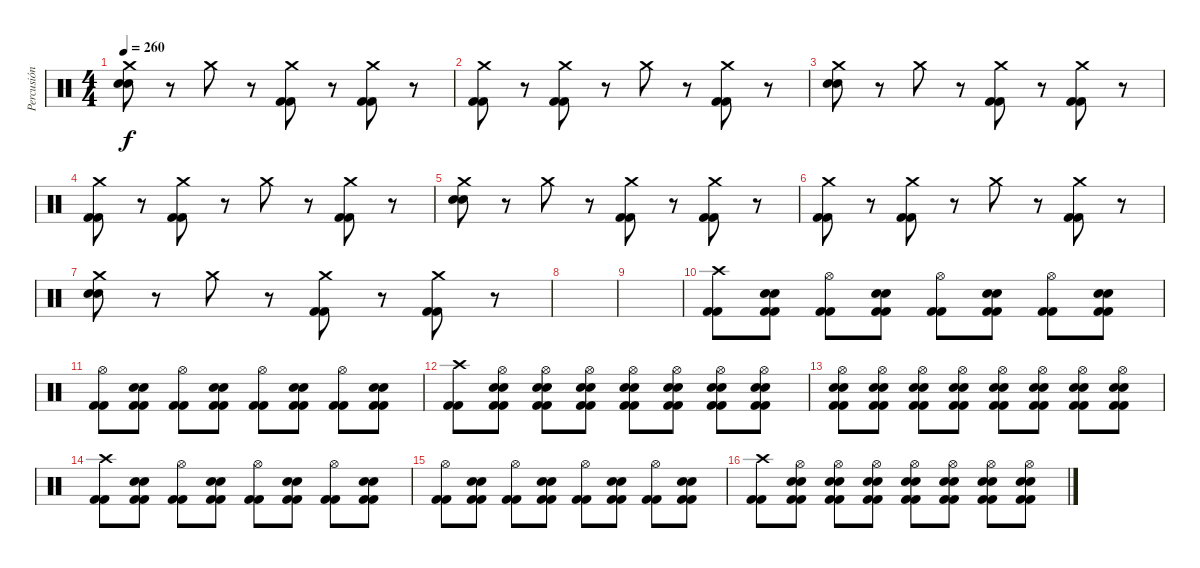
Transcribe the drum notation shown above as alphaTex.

\track ("Percusión" "Percusión") {instrument percussion}
\staff {score}
\articulation defaults
\ts (4 4)
\tempo 260
\clef neutral
\ks c
("Electric Snare (hit)" "Electric Snare (hit)" "Crash medium (hit)").8{dy f} r.8 "Crash medium (hit)".8 r.8 ("Kick (hit) 2" "Kick (hit) 2" "Crash medium (hit)").8 r.8 ("Kick (hit) 2" "Kick (hit) 2" "Crash medium (hit)").8 r.8 |
("Kick (hit) 2" "Kick (hit) 2" "Crash medium (hit)").8 r.8 ("Kick (hit) 2" "Kick (hit) 2" "Crash medium (hit)").8 r.8 "Crash medium (hit)".8 r.8 ("Kick (hit) 2" "Kick (hit) 2" "Crash medium (hit)").8 r.8 |
("Electric Snare (hit)" "Electric Snare (hit)" "Crash medium (hit)").8 r.8 "Crash medium (hit)".8 r.8 ("Kick (hit) 2" "Kick (hit) 2" "Crash medium (hit)").8 r.8 ("Kick (hit) 2" "Kick (hit) 2" "Crash medium (hit)").8 r.8 |
("Kick (hit) 2" "Kick (hit) 2" "Crash medium (hit)").8 r.8 ("Kick (hit) 2" "Kick (hit) 2" "Crash medium (hit)").8 r.8 "Crash medium (hit)".8 r.8 ("Kick (hit) 2" "Kick (hit) 2" "Crash medium (hit)").8 r.8 |
("Electric Snare (hit)" "Electric Snare (hit)" "Crash medium (hit)").8 r.8 "Crash medium (hit)".8 r.8 ("Kick (hit) 2" "Kick (hit) 2" "Crash medium (hit)").8 r.8 ("Kick (hit) 2" "Kick (hit) 2" "Crash medium (hit)").8 r.8 |
("Kick (hit) 2" "Kick (hit) 2" "Crash medium (hit)").8 r.8 ("Kick (hit) 2" "Kick (hit) 2" "Crash medium (hit)").8 r.8 "Crash medium (hit)".8 r.8 ("Kick (hit) 2" "Kick (hit) 2" "Crash medium (hit)").8 r.8 |
("Electric Snare (hit)" "Electric Snare (hit)" "Crash medium (hit)").8 r.8 "Crash medium (hit)".8 r.8 ("Kick (hit) 2" "Kick (hit) 2" "Crash medium (hit)").8 r.8 ("Kick (hit) 2" "Kick (hit) 2" "Crash medium (hit)").8 r.8 |
|
|
("Kick (hit) 2" "Kick (hit) 2" "Crash high (hit)").8 ("Kick (hit) 2" "Kick (hit) 2" "Electric Snare (hit)" "Electric Snare (hit)").8 ("Kick (hit) 2" "Kick (hit) 2" "Hi-Hat (open)").8 ("Kick (hit) 2" "Kick (hit) 2" "Electric Snare (hit)" "Electric Snare (hit)").8 ("Kick (hit) 2" "Kick (hit) 2" "Hi-Hat (open)").8 ("Kick (hit) 2" "Kick (hit) 2" "Electric Snare (hit)" "Electric Snare (hit)").8 ("Kick (hit) 2" "Kick (hit) 2" "Hi-Hat (open)").8 ("Kick (hit) 2" "Kick (hit) 2" "Electric Snare (hit)" "Electric Snare (hit)").8 |
("Kick (hit) 2" "Kick (hit) 2" "Hi-Hat (open)").8 ("Kick (hit) 2" "Kick (hit) 2" "Electric Snare (hit)" "Electric Snare (hit)").8 ("Kick (hit) 2" "Kick (hit) 2" "Hi-Hat (open)").8 ("Kick (hit) 2" "Kick (hit) 2" "Electric Snare (hit)" "Electric Snare (hit)").8 ("Kick (hit) 2" "Kick (hit) 2" "Hi-Hat (open)").8 ("Kick (hit) 2" "Kick (hit) 2" "Electric Snare (hit)" "Electric Snare (hit)").8 ("Kick (hit) 2" "Kick (hit) 2" "Hi-Hat (open)").8 ("Kick (hit) 2" "Kick (hit) 2" "Electric Snare (hit)" "Electric Snare (hit)").8 |
("Kick (hit) 2" "Kick (hit) 2" "Crash high (hit)").8 ("Kick (hit) 2" "Kick (hit) 2" "Electric Snare (hit)" "Electric Snare (hit)" "Hi-Hat (open)").8 ("Kick (hit) 2" "Kick (hit) 2" "Electric Snare (hit)" "Electric Snare (hit)" "Hi-Hat (open)").8 ("Kick (hit) 2" "Kick (hit) 2" "Electric Snare (hit)" "Electric Snare (hit)" "Hi-Hat (open)").8 ("Kick (hit) 2" "Kick (hit) 2" "Electric Snare (hit)" "Electric Snare (hit)" "Hi-Hat (open)").8 ("Kick (hit) 2" "Kick (hit) 2" "Electric Snare (hit)" "Electric Snare (hit)" "Hi-Hat (open)").8 ("Kick (hit) 2" "Kick (hit) 2" "Electric Snare (hit)" "Electric Snare (hit)" "Hi-Hat (open)").8 ("Kick (hit) 2" "Kick (hit) 2" "Electric Snare (hit)" "Electric Snare (hit)" "Hi-Hat (open)").8 |
("Kick (hit) 2" "Kick (hit) 2" "Electric Snare (hit)" "Electric Snare (hit)" "Hi-Hat (open)").8 ("Kick (hit) 2" "Kick (hit) 2" "Electric Snare (hit)" "Electric Snare (hit)" "Hi-Hat (open)").8 ("Kick (hit) 2" "Kick (hit) 2" "Electric Snare (hit)" "Electric Snare (hit)" "Hi-Hat (open)").8 ("Kick (hit) 2" "Kick (hit) 2" "Electric Snare (hit)" "Electric Snare (hit)" "Hi-Hat (open)").8 ("Kick (hit) 2" "Kick (hit) 2" "Electric Snare (hit)" "Electric Snare (hit)" "Hi-Hat (open)").8 ("Kick (hit) 2" "Kick (hit) 2" "Electric Snare (hit)" "Electric Snare (hit)" "Hi-Hat (open)").8 ("Kick (hit) 2" "Kick (hit) 2" "Electric Snare (hit)" "Electric Snare (hit)" "Hi-Hat (open)").8 ("Kick (hit) 2" "Kick (hit) 2" "Electric Snare (hit)" "Electric Snare (hit)" "Hi-Hat (open)").8 |
("Kick (hit) 2" "Kick (hit) 2" "Crash high (hit)").8 ("Kick (hit) 2" "Kick (hit) 2" "Electric Snare (hit)" "Electric Snare (hit)").8 ("Kick (hit) 2" "Kick (hit) 2" "Hi-Hat (open)").8 ("Kick (hit) 2" "Kick (hit) 2" "Electric Snare (hit)" "Electric Snare (hit)").8 ("Kick (hit) 2" "Kick (hit) 2" "Hi-Hat (open)").8 ("Kick (hit) 2" "Kick (hit) 2" "Electric Snare (hit)" "Electric Snare (hit)").8 ("Kick (hit) 2" "Kick (hit) 2" "Hi-Hat (open)").8 ("Kick (hit) 2" "Kick (hit) 2" "Electric Snare (hit)" "Electric Snare (hit)").8 |
("Kick (hit) 2" "Kick (hit) 2" "Hi-Hat (open)").8 ("Kick (hit) 2" "Kick (hit) 2" "Electric Snare (hit)" "Electric Snare (hit)").8 ("Kick (hit) 2" "Kick (hit) 2" "Hi-Hat (open)").8 ("Kick (hit) 2" "Kick (hit) 2" "Electric Snare (hit)" "Electric Snare (hit)").8 ("Kick (hit) 2" "Kick (hit) 2" "Hi-Hat (open)").8 ("Kick (hit) 2" "Kick (hit) 2" "Electric Snare (hit)" "Electric Snare (hit)").8 ("Kick (hit) 2" "Kick (hit) 2" "Hi-Hat (open)").8 ("Kick (hit) 2" "Kick (hit) 2" "Electric Snare (hit)" "Electric Snare (hit)").8 |
("Kick (hit) 2" "Kick (hit) 2" "Crash high (hit)").8 ("Kick (hit) 2" "Kick (hit) 2" "Electric Snare (hit)" "Electric Snare (hit)" "Hi-Hat (open)").8 ("Kick (hit) 2" "Kick (hit) 2" "Electric Snare (hit)" "Electric Snare (hit)" "Hi-Hat (open)").8 ("Kick (hit) 2" "Kick (hit) 2" "Electric Snare (hit)" "Electric Snare (hit)" "Hi-Hat (open)").8 ("Kick (hit) 2" "Kick (hit) 2" "Electric Snare (hit)" "Electric Snare (hit)" "Hi-Hat (open)").8 ("Kick (hit) 2" "Kick (hit) 2" "Electric Snare (hit)" "Electric Snare (hit)" "Hi-Hat (open)").8 ("Kick (hit) 2" "Kick (hit) 2" "Electric Snare (hit)" "Electric Snare (hit)" "Hi-Hat (open)").8 ("Kick (hit) 2" "Kick (hit) 2" "Electric Snare (hit)" "Electric Snare (hit)" "Hi-Hat (open)").8
